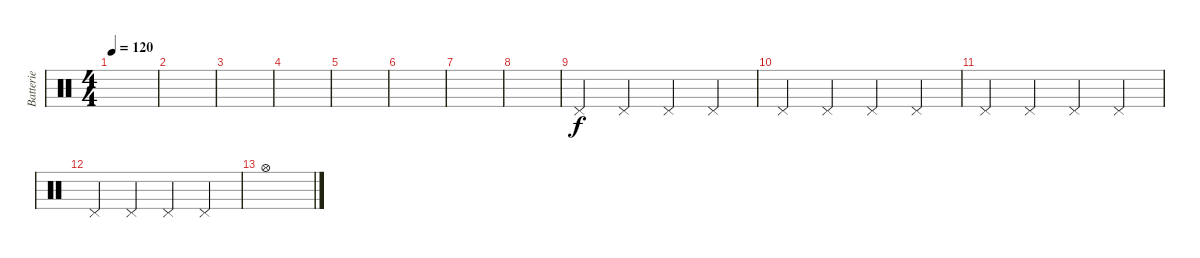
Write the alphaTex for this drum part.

\track ("Batterie" "Batterie") {instrument percussion}
\staff {score}
\articulation defaults
\ts (4 4)
\tempo 120
\clef neutral
\ks c
|
|
|
|
|
|
|
|
"Pedal Hi-Hat (hit)".4 "Pedal Hi-Hat (hit)".4 "Pedal Hi-Hat (hit)".4 "Pedal Hi-Hat (hit)".4 |
"Pedal Hi-Hat (hit)".4 "Pedal Hi-Hat (hit)".4 "Pedal Hi-Hat (hit)".4 "Pedal Hi-Hat (hit)".4 |
"Pedal Hi-Hat (hit)".4 "Pedal Hi-Hat (hit)".4 "Pedal Hi-Hat (hit)".4 "Pedal Hi-Hat (hit)".4 |
"Pedal Hi-Hat (hit)".4 "Pedal Hi-Hat (hit)".4 "Pedal Hi-Hat (hit)".4 "Pedal Hi-Hat (hit)".4 |
"Hi-Hat (open)".1
